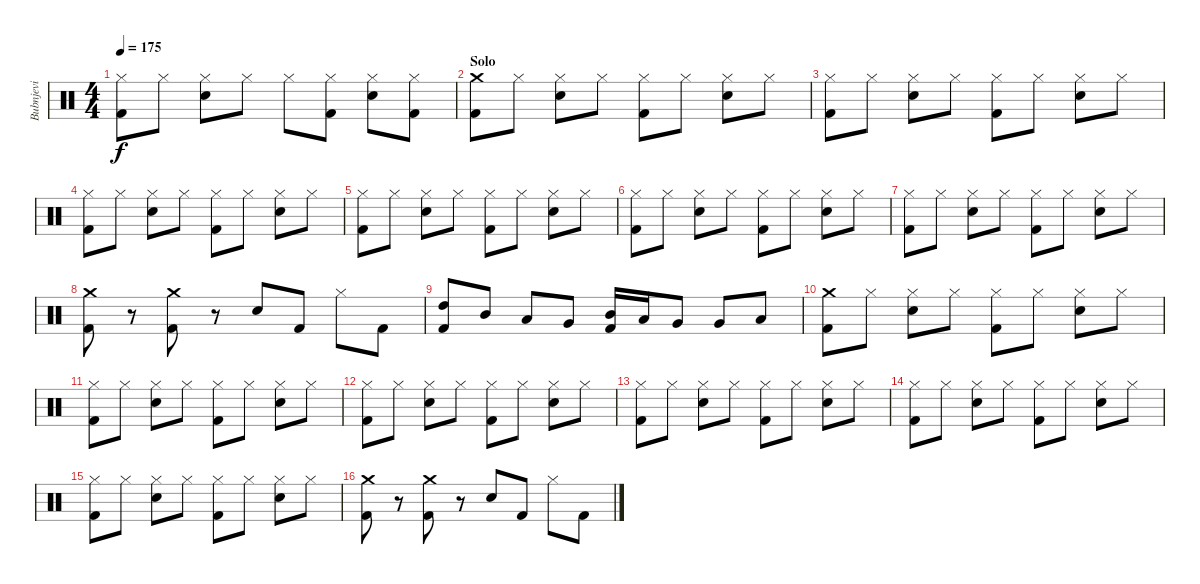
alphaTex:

\track ("Bubnjevi" "Bubnjevi") {instrument percussion}
\staff {score}
\articulation defaults
\ts (4 4)
\tempo 175
\clef neutral
\ks c
("Hi-Hat (closed)" "Kick (hit) 2").8{dy f} "Hi-Hat (closed)".8 ("Electric Snare (hit)" "Hi-Hat (closed)").8 "Hi-Hat (closed)".8 "Hi-Hat (closed)".8 ("Hi-Hat (closed)" "Kick (hit) 2").8 ("Electric Snare (hit)" "Hi-Hat (closed)").8 ("Hi-Hat (closed)" "Kick (hit) 2").8 |
\section ("" "Solo")
("Crash medium (hit)" "Kick (hit) 2").8 "Hi-Hat (closed)".8 ("Electric Snare (hit)" "Hi-Hat (closed)").8 "Hi-Hat (closed)".8 ("Hi-Hat (closed)" "Kick (hit) 2").8 "Hi-Hat (closed)".8 ("Electric Snare (hit)" "Hi-Hat (closed)").8 "Hi-Hat (closed)".8 |
("Hi-Hat (closed)" "Kick (hit) 2").8 "Hi-Hat (closed)".8 ("Electric Snare (hit)" "Hi-Hat (closed)").8 "Hi-Hat (closed)".8 ("Hi-Hat (closed)" "Kick (hit) 2").8 "Hi-Hat (closed)".8 ("Electric Snare (hit)" "Hi-Hat (closed)").8 "Hi-Hat (closed)".8 |
("Hi-Hat (closed)" "Kick (hit) 2").8 "Hi-Hat (closed)".8 ("Electric Snare (hit)" "Hi-Hat (closed)").8 "Hi-Hat (closed)".8 ("Hi-Hat (closed)" "Kick (hit) 2").8 "Hi-Hat (closed)".8 ("Electric Snare (hit)" "Hi-Hat (closed)").8 "Hi-Hat (closed)".8 |
("Hi-Hat (closed)" "Kick (hit) 2").8 "Hi-Hat (closed)".8 ("Electric Snare (hit)" "Hi-Hat (closed)").8 "Hi-Hat (closed)".8 ("Hi-Hat (closed)" "Kick (hit) 2").8 "Hi-Hat (closed)".8 ("Electric Snare (hit)" "Hi-Hat (closed)").8 "Hi-Hat (closed)".8 |
("Hi-Hat (closed)" "Kick (hit) 2").8 "Hi-Hat (closed)".8 ("Electric Snare (hit)" "Hi-Hat (closed)").8 "Hi-Hat (closed)".8 ("Hi-Hat (closed)" "Kick (hit) 2").8 "Hi-Hat (closed)".8 ("Electric Snare (hit)" "Hi-Hat (closed)").8 "Hi-Hat (closed)".8 |
("Hi-Hat (closed)" "Kick (hit) 2").8 "Hi-Hat (closed)".8 ("Electric Snare (hit)" "Hi-Hat (closed)").8 "Hi-Hat (closed)".8 ("Hi-Hat (closed)" "Kick (hit) 2").8 "Hi-Hat (closed)".8 ("Electric Snare (hit)" "Hi-Hat (closed)").8 "Hi-Hat (closed)".8 |
("Crash medium (hit)" "Kick (hit) 2").8 r.8 ("Crash medium (hit)" "Kick (hit) 2").8 r.8 "Electric Snare (hit)".8 "Kick (hit) 2".8 "Hi-Hat (closed)".8 "Kick (hit) 2".8 |
("High Tom (hit)" "Kick (hit) 2").8 "Mid Tom (hit)".8 "Low Tom (hit)".8 "Very Low Tom (hit)".8 ("Mid Tom (hit)" "Kick (hit) 2").16 "Low Tom (hit)".16 "Very Low Tom (hit)".8 "Very Low Tom (hit)".8 "Low Floor Tom (hit)".8 |
("Crash medium (hit)" "Kick (hit) 2").8 "Hi-Hat (closed)".8 ("Electric Snare (hit)" "Hi-Hat (closed)").8 "Hi-Hat (closed)".8 ("Hi-Hat (closed)" "Kick (hit) 2").8 "Hi-Hat (closed)".8 ("Electric Snare (hit)" "Hi-Hat (closed)").8 "Hi-Hat (closed)".8 |
("Hi-Hat (closed)" "Kick (hit) 2").8 "Hi-Hat (closed)".8 ("Electric Snare (hit)" "Hi-Hat (closed)").8 "Hi-Hat (closed)".8 ("Hi-Hat (closed)" "Kick (hit) 2").8 "Hi-Hat (closed)".8 ("Electric Snare (hit)" "Hi-Hat (closed)").8 "Hi-Hat (closed)".8 |
("Hi-Hat (closed)" "Kick (hit) 2").8 "Hi-Hat (closed)".8 ("Electric Snare (hit)" "Hi-Hat (closed)").8 "Hi-Hat (closed)".8 ("Hi-Hat (closed)" "Kick (hit) 2").8 "Hi-Hat (closed)".8 ("Electric Snare (hit)" "Hi-Hat (closed)").8 "Hi-Hat (closed)".8 |
("Hi-Hat (closed)" "Kick (hit) 2").8 "Hi-Hat (closed)".8 ("Electric Snare (hit)" "Hi-Hat (closed)").8 "Hi-Hat (closed)".8 ("Hi-Hat (closed)" "Kick (hit) 2").8 "Hi-Hat (closed)".8 ("Electric Snare (hit)" "Hi-Hat (closed)").8 "Hi-Hat (closed)".8 |
("Hi-Hat (closed)" "Kick (hit) 2").8 "Hi-Hat (closed)".8 ("Electric Snare (hit)" "Hi-Hat (closed)").8 "Hi-Hat (closed)".8 ("Hi-Hat (closed)" "Kick (hit) 2").8 "Hi-Hat (closed)".8 ("Electric Snare (hit)" "Hi-Hat (closed)").8 "Hi-Hat (closed)".8 |
("Hi-Hat (closed)" "Kick (hit) 2").8 "Hi-Hat (closed)".8 ("Electric Snare (hit)" "Hi-Hat (closed)").8 "Hi-Hat (closed)".8 ("Hi-Hat (closed)" "Kick (hit) 2").8 "Hi-Hat (closed)".8 ("Electric Snare (hit)" "Hi-Hat (closed)").8 "Hi-Hat (closed)".8 |
("Crash medium (hit)" "Kick (hit) 2").8 r.8 ("Crash medium (hit)" "Kick (hit) 2").8 r.8 "Electric Snare (hit)".8 "Kick (hit) 2".8 "Hi-Hat (closed)".8 "Kick (hit) 2".8
